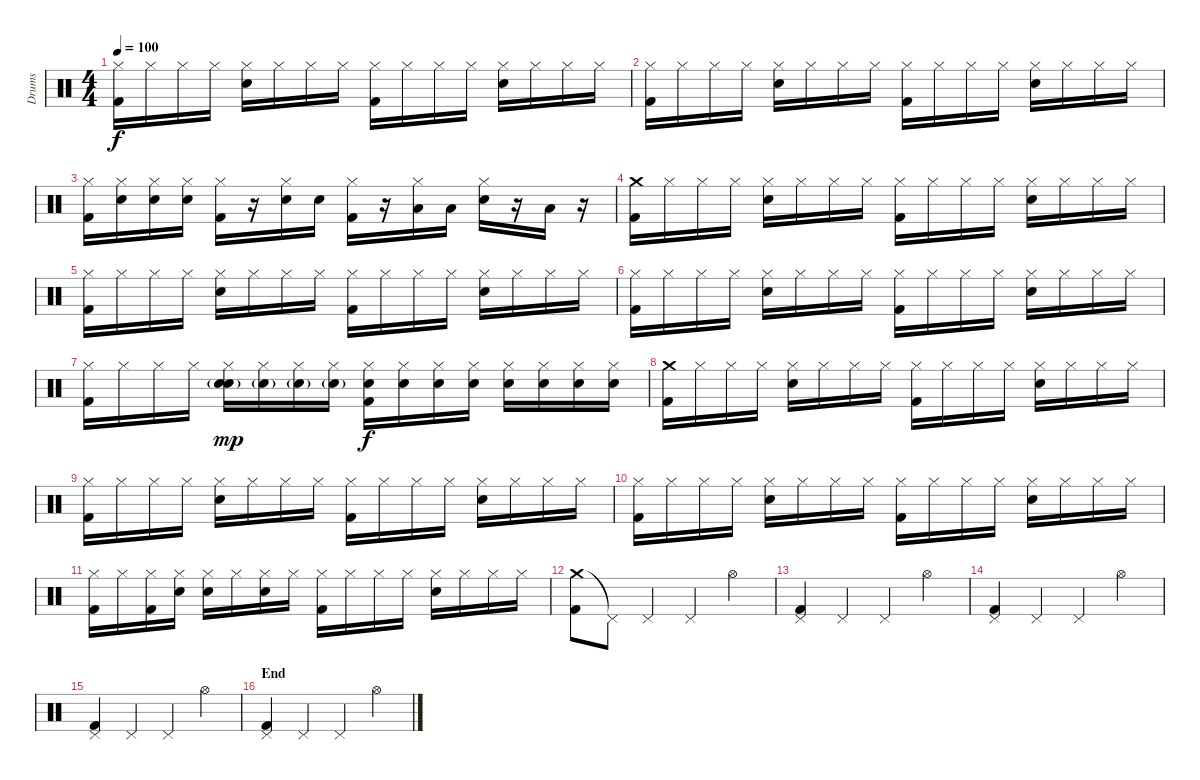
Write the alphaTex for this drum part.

\track ("Drums" "Drums") {instrument percussion}
\staff {score}
\articulation defaults
\ts (4 4)
\tempo 100
\clef neutral
\ks c
("Hi-Hat (closed)" "Kick (hit) 2").16{dy f} "Hi-Hat (closed)".16 "Hi-Hat (closed)".16 "Hi-Hat (closed)".16 ("Hi-Hat (closed)" "Snare (hit) 2").16 "Hi-Hat (closed)".16 "Hi-Hat (closed)".16 "Hi-Hat (closed)".16 ("Hi-Hat (closed)" "Kick (hit) 2").16 "Hi-Hat (closed)".16 "Hi-Hat (closed)".16 "Hi-Hat (closed)".16 ("Hi-Hat (closed)" "Snare (hit) 2").16 "Hi-Hat (closed)".16 "Hi-Hat (closed)".16 "Hi-Hat (closed)".16 |
("Hi-Hat (closed)" "Kick (hit) 2").16 "Hi-Hat (closed)".16 "Hi-Hat (closed)".16 "Hi-Hat (closed)".16 ("Hi-Hat (closed)" "Snare (hit) 2").16 "Hi-Hat (closed)".16 "Hi-Hat (closed)".16 "Hi-Hat (closed)".16 ("Hi-Hat (closed)" "Kick (hit) 2").16 "Hi-Hat (closed)".16 "Hi-Hat (closed)".16 "Hi-Hat (closed)".16 ("Hi-Hat (closed)" "Snare (hit) 2").16 "Hi-Hat (closed)".16 "Hi-Hat (closed)".16 "Hi-Hat (closed)".16 |
("Hi-Hat (closed)" "Kick (hit) 2").16 ("Hi-Hat (closed)" "Snare (hit) 2").16 ("Hi-Hat (closed)" "Snare (hit) 2").16 ("Hi-Hat (closed)" "Snare (hit) 2").16 ("Hi-Hat (closed)" "Kick (hit) 2").16 r.16 ("Hi-Hat (closed)" "Snare (hit) 2").16 "Snare (hit) 2".16 ("Hi-Hat (closed)" "Kick (hit) 2").16 r.16 ("Hi-Hat (closed)" "Low Tom (hit)").16 "Low Tom (hit)".16 ("Hi-Hat (closed)" "Snare (hit) 2").16 r.16 "Low Tom (hit)".16 r.16 |
("Crash medium (hit)" "Kick (hit) 2").16 "Hi-Hat (closed)".16 "Hi-Hat (closed)".16 "Hi-Hat (closed)".16 ("Hi-Hat (closed)" "Snare (hit) 2").16 "Hi-Hat (closed)".16 "Hi-Hat (closed)".16 "Hi-Hat (closed)".16 ("Hi-Hat (closed)" "Kick (hit) 2").16 "Hi-Hat (closed)".16 "Hi-Hat (closed)".16 "Hi-Hat (closed)".16 ("Hi-Hat (closed)" "Snare (hit) 2").16 "Hi-Hat (closed)".16 "Hi-Hat (closed)".16 "Hi-Hat (closed)".16 |
("Hi-Hat (closed)" "Kick (hit) 2").16 "Hi-Hat (closed)".16 "Hi-Hat (closed)".16 "Hi-Hat (closed)".16 ("Hi-Hat (closed)" "Snare (hit) 2").16 "Hi-Hat (closed)".16 "Hi-Hat (closed)".16 "Hi-Hat (closed)".16 ("Hi-Hat (closed)" "Kick (hit) 2").16 "Hi-Hat (closed)".16 "Hi-Hat (closed)".16 "Hi-Hat (closed)".16 ("Hi-Hat (closed)" "Snare (hit) 2").16 "Hi-Hat (closed)".16 "Hi-Hat (closed)".16 "Hi-Hat (closed)".16 |
("Hi-Hat (closed)" "Kick (hit) 2").16 "Hi-Hat (closed)".16 "Hi-Hat (closed)".16 "Hi-Hat (closed)".16 ("Hi-Hat (closed)" "Snare (hit) 2").16 "Hi-Hat (closed)".16 "Hi-Hat (closed)".16 "Hi-Hat (closed)".16 ("Hi-Hat (closed)" "Kick (hit) 2").16 "Hi-Hat (closed)".16 "Hi-Hat (closed)".16 "Hi-Hat (closed)".16 ("Hi-Hat (closed)" "Snare (hit) 2").16 "Hi-Hat (closed)".16 "Hi-Hat (closed)".16 "Hi-Hat (closed)".16 |
("Hi-Hat (closed)" "Kick (hit) 2").16 "Hi-Hat (closed)".16 "Hi-Hat (closed)".16 "Hi-Hat (closed)".16 ("Snare (hit) 2"{g} "Hi-Hat (closed)" "Snare (hit) 2").16{dy mp} ("Snare (hit) 2"{g} "Hi-Hat (closed)").16 ("Snare (hit) 2"{g} "Hi-Hat (closed)").16 ("Snare (hit) 2"{g} "Hi-Hat (closed)").16 ("Snare (hit) 2" "Hi-Hat (closed)" "Kick (hit) 2").16{dy f} ("Snare (hit) 2" "Hi-Hat (closed)").16 ("Snare (hit) 2" "Hi-Hat (closed)").16 ("Snare (hit) 2" "Hi-Hat (closed)").16 ("Snare (hit) 2" "Hi-Hat (closed)").16 ("Snare (hit) 2" "Hi-Hat (closed)").16 ("Snare (hit) 2" "Hi-Hat (closed)").16 ("Snare (hit) 2" "Hi-Hat (closed)").16 |
("Crash medium (hit)" "Kick (hit) 2").16 "Hi-Hat (closed)".16 "Hi-Hat (closed)".16 "Hi-Hat (closed)".16 ("Hi-Hat (closed)" "Snare (hit) 2").16 "Hi-Hat (closed)".16 "Hi-Hat (closed)".16 "Hi-Hat (closed)".16 ("Hi-Hat (closed)" "Kick (hit) 2").16 "Hi-Hat (closed)".16 "Hi-Hat (closed)".16 "Hi-Hat (closed)".16 ("Hi-Hat (closed)" "Snare (hit) 2").16 "Hi-Hat (closed)".16 "Hi-Hat (closed)".16 "Hi-Hat (closed)".16 |
("Hi-Hat (closed)" "Kick (hit) 2").16 "Hi-Hat (closed)".16 "Hi-Hat (closed)".16 "Hi-Hat (closed)".16 ("Hi-Hat (closed)" "Snare (hit) 2").16 "Hi-Hat (closed)".16 "Hi-Hat (closed)".16 "Hi-Hat (closed)".16 ("Hi-Hat (closed)" "Kick (hit) 2").16 "Hi-Hat (closed)".16 "Hi-Hat (closed)".16 "Hi-Hat (closed)".16 ("Hi-Hat (closed)" "Snare (hit) 2").16 "Hi-Hat (closed)".16 "Hi-Hat (closed)".16 "Hi-Hat (closed)".16 |
("Hi-Hat (closed)" "Kick (hit) 2").16 "Hi-Hat (closed)".16 "Hi-Hat (closed)".16 "Hi-Hat (closed)".16 ("Hi-Hat (closed)" "Snare (hit) 2").16 "Hi-Hat (closed)".16 "Hi-Hat (closed)".16 "Hi-Hat (closed)".16 ("Hi-Hat (closed)" "Kick (hit) 2").16 "Hi-Hat (closed)".16 "Hi-Hat (closed)".16 "Hi-Hat (closed)".16 ("Hi-Hat (closed)" "Snare (hit) 2").16 "Hi-Hat (closed)".16 "Hi-Hat (closed)".16 "Hi-Hat (closed)".16 |
("Hi-Hat (closed)" "Kick (hit) 2").16 "Hi-Hat (closed)".16 ("Hi-Hat (closed)" "Kick (hit) 2").16 ("Hi-Hat (closed)" "Snare (hit) 2").16 ("Hi-Hat (closed)" "Snare (hit) 2").16 "Hi-Hat (closed)".16 ("Hi-Hat (closed)" "Snare (hit) 2").16 "Hi-Hat (closed)".16 ("Hi-Hat (closed)" "Kick (hit) 2").16 "Hi-Hat (closed)".16 "Hi-Hat (closed)".16 "Hi-Hat (closed)".16 ("Hi-Hat (closed)" "Snare (hit) 2").16 "Hi-Hat (closed)".16 "Hi-Hat (closed)".16 "Hi-Hat (closed)".16 |
("Crash medium (hit)" "Kick (hit) 2").8 "Pedal Hi-Hat (hit)"{t}.8 "Pedal Hi-Hat (hit)".4 "Pedal Hi-Hat (hit)".4 "Hi-Hat (open)".4 |
("Pedal Hi-Hat (hit)" "Kick (hit) 2").4 "Pedal Hi-Hat (hit)".4 "Pedal Hi-Hat (hit)".4 "Hi-Hat (open)".4 |
("Pedal Hi-Hat (hit)" "Kick (hit) 2").4 "Pedal Hi-Hat (hit)".4 "Pedal Hi-Hat (hit)".4 "Hi-Hat (open)".4 |
("Pedal Hi-Hat (hit)" "Kick (hit) 2").4 "Pedal Hi-Hat (hit)".4 "Pedal Hi-Hat (hit)".4 "Hi-Hat (open)".4 |
\section ("" "End")
("Pedal Hi-Hat (hit)" "Kick (hit) 2").4 "Pedal Hi-Hat (hit)".4 "Pedal Hi-Hat (hit)".4 "Hi-Hat (open)".4
